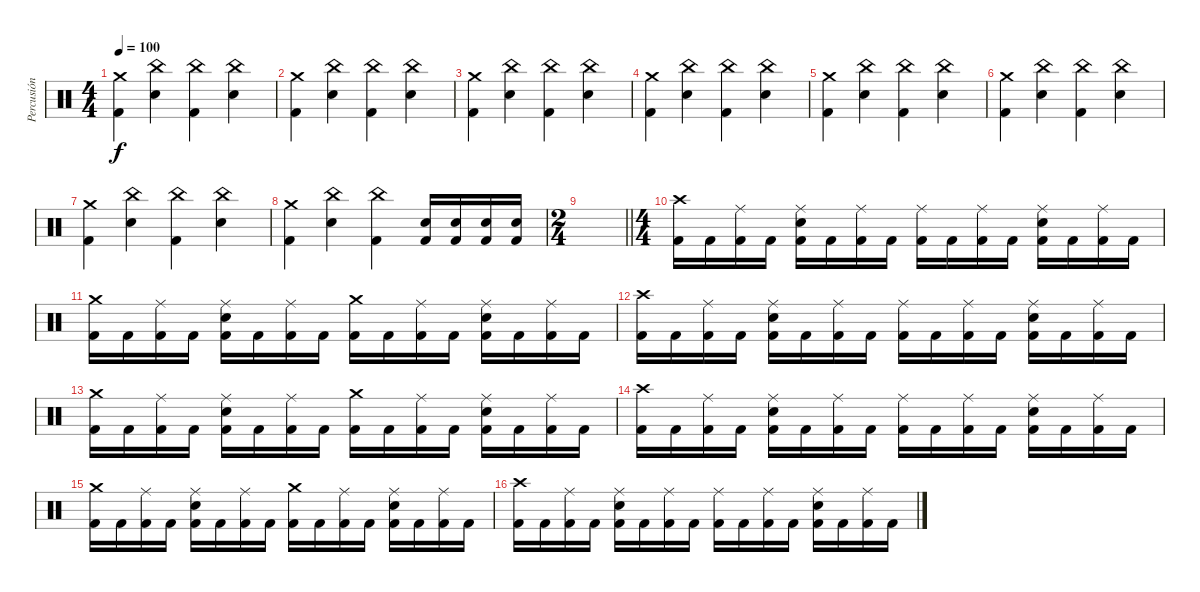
\track ("Percusión" "Percusión") {instrument percussion}
\staff {score}
\articulation defaults
\ts (4 4)
\tempo 100
\clef neutral
\ks c
("Crash medium (hit)" "Kick (hit) 2").4{dy f} ("China (hit)" "Snare (hit) 2").4 ("China (hit)" "Kick (hit) 2").4 ("China (hit)" "Snare (hit) 2").4 |
("Crash medium (hit)" "Kick (hit) 2").4 ("China (hit)" "Snare (hit) 2").4 ("China (hit)" "Kick (hit) 2").4 ("China (hit)" "Snare (hit) 2").4 |
("Crash medium (hit)" "Kick (hit) 2").4 ("China (hit)" "Snare (hit) 2").4 ("China (hit)" "Kick (hit) 2").4 ("China (hit)" "Snare (hit) 2").4 |
("Crash medium (hit)" "Kick (hit) 2").4 ("China (hit)" "Snare (hit) 2").4 ("China (hit)" "Kick (hit) 2").4 ("China (hit)" "Snare (hit) 2").4 |
("Crash medium (hit)" "Kick (hit) 2").4 ("China (hit)" "Snare (hit) 2").4 ("China (hit)" "Kick (hit) 2").4 ("China (hit)" "Snare (hit) 2").4 |
("Crash medium (hit)" "Kick (hit) 2").4 ("China (hit)" "Snare (hit) 2").4 ("China (hit)" "Kick (hit) 2").4 ("China (hit)" "Snare (hit) 2").4 |
("Crash medium (hit)" "Kick (hit) 2").4 ("China (hit)" "Snare (hit) 2").4 ("China (hit)" "Kick (hit) 2").4 ("China (hit)" "Snare (hit) 2").4 |
("Crash medium (hit)" "Kick (hit) 2").4 ("China (hit)" "Snare (hit) 2").4 ("China (hit)" "Kick (hit) 2").4 ("Snare (hit) 2" "Kick (hit) 2").16 ("Snare (hit) 2" "Kick (hit) 2").16 ("Snare (hit) 2" "Kick (hit) 2").16 ("Snare (hit) 2" "Kick (hit) 2").16 |
\ts (2 4)
\barLineRight lightlight
|
\ts (4 4)
("Crash high (hit)" "Kick (hit) 2").16 "Kick (hit) 2".16 ("Ride (middle)" "Kick (hit) 2").16 "Kick (hit) 2".16 ("Ride (middle)" "Snare (hit) 2" "Kick (hit) 2").16 "Kick (hit) 2".16 ("Ride (middle)" "Kick (hit) 2").16 "Kick (hit) 2".16 ("Ride (middle)" "Kick (hit) 2").16 "Kick (hit) 2".16 ("Ride (middle)" "Kick (hit) 2").16 "Kick (hit) 2".16 ("Ride (middle)" "Snare (hit) 2" "Kick (hit) 2").16 "Kick (hit) 2".16 ("Ride (middle)" "Kick (hit) 2").16 "Kick (hit) 2".16 |
("Crash medium (hit)" "Kick (hit) 2").16 "Kick (hit) 2".16 ("Ride (middle)" "Kick (hit) 2").16 "Kick (hit) 2".16 ("Ride (middle)" "Snare (hit) 2" "Kick (hit) 2").16 "Kick (hit) 2".16 ("Ride (middle)" "Kick (hit) 2").16 "Kick (hit) 2".16 ("Crash medium (hit)" "Kick (hit) 2").16 "Kick (hit) 2".16 ("Ride (middle)" "Kick (hit) 2").16 "Kick (hit) 2".16 ("Ride (middle)" "Snare (hit) 2" "Kick (hit) 2").16 "Kick (hit) 2".16 ("Ride (middle)" "Kick (hit) 2").16 "Kick (hit) 2".16 |
("Crash high (hit)" "Kick (hit) 2").16 "Kick (hit) 2".16 ("Ride (middle)" "Kick (hit) 2").16 "Kick (hit) 2".16 ("Ride (middle)" "Snare (hit) 2" "Kick (hit) 2").16 "Kick (hit) 2".16 ("Ride (middle)" "Kick (hit) 2").16 "Kick (hit) 2".16 ("Ride (middle)" "Kick (hit) 2").16 "Kick (hit) 2".16 ("Ride (middle)" "Kick (hit) 2").16 "Kick (hit) 2".16 ("Ride (middle)" "Snare (hit) 2" "Kick (hit) 2").16 "Kick (hit) 2".16 ("Ride (middle)" "Kick (hit) 2").16 "Kick (hit) 2".16 |
("Crash medium (hit)" "Kick (hit) 2").16 "Kick (hit) 2".16 ("Ride (middle)" "Kick (hit) 2").16 "Kick (hit) 2".16 ("Ride (middle)" "Snare (hit) 2" "Kick (hit) 2").16 "Kick (hit) 2".16 ("Ride (middle)" "Kick (hit) 2").16 "Kick (hit) 2".16 ("Crash medium (hit)" "Kick (hit) 2").16 "Kick (hit) 2".16 ("Ride (middle)" "Kick (hit) 2").16 "Kick (hit) 2".16 ("Ride (middle)" "Snare (hit) 2" "Kick (hit) 2").16 "Kick (hit) 2".16 ("Ride (middle)" "Kick (hit) 2").16 "Kick (hit) 2".16 |
("Crash high (hit)" "Kick (hit) 2").16 "Kick (hit) 2".16 ("Ride (middle)" "Kick (hit) 2").16 "Kick (hit) 2".16 ("Ride (middle)" "Snare (hit) 2" "Kick (hit) 2").16 "Kick (hit) 2".16 ("Ride (middle)" "Kick (hit) 2").16 "Kick (hit) 2".16 ("Ride (middle)" "Kick (hit) 2").16 "Kick (hit) 2".16 ("Ride (middle)" "Kick (hit) 2").16 "Kick (hit) 2".16 ("Ride (middle)" "Snare (hit) 2" "Kick (hit) 2").16 "Kick (hit) 2".16 ("Ride (middle)" "Kick (hit) 2").16 "Kick (hit) 2".16 |
("Crash medium (hit)" "Kick (hit) 2").16 "Kick (hit) 2".16 ("Ride (middle)" "Kick (hit) 2").16 "Kick (hit) 2".16 ("Ride (middle)" "Snare (hit) 2" "Kick (hit) 2").16 "Kick (hit) 2".16 ("Ride (middle)" "Kick (hit) 2").16 "Kick (hit) 2".16 ("Crash medium (hit)" "Kick (hit) 2").16 "Kick (hit) 2".16 ("Ride (middle)" "Kick (hit) 2").16 "Kick (hit) 2".16 ("Ride (middle)" "Snare (hit) 2" "Kick (hit) 2").16 "Kick (hit) 2".16 ("Ride (middle)" "Kick (hit) 2").16 "Kick (hit) 2".16 |
("Crash high (hit)" "Kick (hit) 2").16 "Kick (hit) 2".16 ("Ride (middle)" "Kick (hit) 2").16 "Kick (hit) 2".16 ("Ride (middle)" "Snare (hit) 2" "Kick (hit) 2").16 "Kick (hit) 2".16 ("Ride (middle)" "Kick (hit) 2").16 "Kick (hit) 2".16 ("Ride (middle)" "Kick (hit) 2").16 "Kick (hit) 2".16 ("Ride (middle)" "Kick (hit) 2").16 "Kick (hit) 2".16 ("Ride (middle)" "Snare (hit) 2" "Kick (hit) 2").16 "Kick (hit) 2".16 ("Ride (middle)" "Kick (hit) 2").16 "Kick (hit) 2".16
